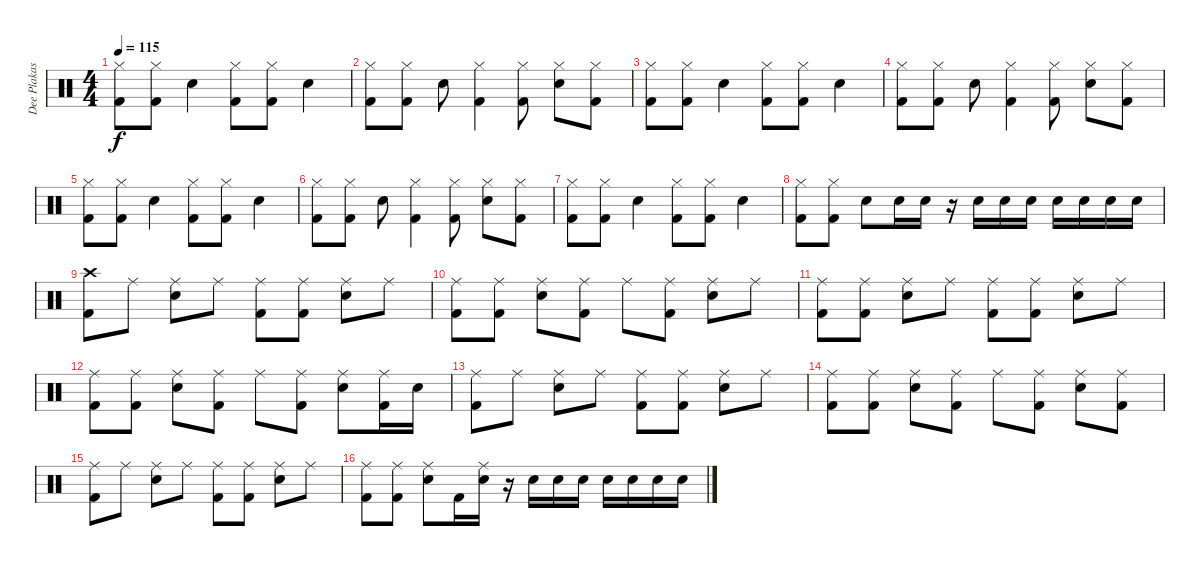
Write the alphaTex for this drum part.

\track ("Dee Plakas" "Dee Plakas") {instrument percussion}
\staff {score}
\articulation defaults
\ts (4 4)
\tempo 115
\clef neutral
\ks c
("Hi-Hat (closed)" "Kick (hit) 2").8{dy f} ("Hi-Hat (closed)" "Kick (hit) 2").8 "Snare (hit) 2".4 ("Hi-Hat (closed)" "Kick (hit) 2").8 ("Hi-Hat (closed)" "Kick (hit) 2").8 "Snare (hit) 2".4 |
("Hi-Hat (closed)" "Kick (hit) 2").8 ("Hi-Hat (closed)" "Kick (hit) 2").8 "Snare (hit) 2".8 ("Hi-Hat (closed)" "Kick (hit) 2").4 ("Hi-Hat (closed)" "Kick (hit) 2").8 ("Hi-Hat (closed)" "Snare (hit) 2").8 ("Hi-Hat (closed)" "Kick (hit) 2").8 |
("Hi-Hat (closed)" "Kick (hit) 2").8 ("Hi-Hat (closed)" "Kick (hit) 2").8 "Snare (hit) 2".4 ("Hi-Hat (closed)" "Kick (hit) 2").8 ("Hi-Hat (closed)" "Kick (hit) 2").8 "Snare (hit) 2".4 |
("Hi-Hat (closed)" "Kick (hit) 2").8 ("Hi-Hat (closed)" "Kick (hit) 2").8 "Snare (hit) 2".8 ("Hi-Hat (closed)" "Kick (hit) 2").4 ("Hi-Hat (closed)" "Kick (hit) 2").8 ("Hi-Hat (closed)" "Snare (hit) 2").8 ("Hi-Hat (closed)" "Kick (hit) 2").8 |
("Hi-Hat (closed)" "Kick (hit) 2").8 ("Hi-Hat (closed)" "Kick (hit) 2").8 "Snare (hit) 2".4 ("Hi-Hat (closed)" "Kick (hit) 2").8 ("Hi-Hat (closed)" "Kick (hit) 2").8 "Snare (hit) 2".4 |
("Hi-Hat (closed)" "Kick (hit) 2").8 ("Hi-Hat (closed)" "Kick (hit) 2").8 "Snare (hit) 2".8 ("Hi-Hat (closed)" "Kick (hit) 2").4 ("Hi-Hat (closed)" "Kick (hit) 2").8 ("Hi-Hat (closed)" "Snare (hit) 2").8 ("Hi-Hat (closed)" "Kick (hit) 2").8 |
("Hi-Hat (closed)" "Kick (hit) 2").8 ("Hi-Hat (closed)" "Kick (hit) 2").8 "Snare (hit) 2".4 ("Hi-Hat (closed)" "Kick (hit) 2").8 ("Hi-Hat (closed)" "Kick (hit) 2").8 "Snare (hit) 2".4 |
("Hi-Hat (closed)" "Kick (hit) 2").8 ("Hi-Hat (closed)" "Kick (hit) 2").8 "Snare (hit) 2".8 "Snare (hit) 2".16 "Snare (hit) 2".16 r.16 "Snare (hit) 2".16 "Snare (hit) 2".16 "Snare (hit) 2".16 "Snare (hit) 2".16 "Snare (hit) 2".16 "Snare (hit) 2".16 "Snare (hit) 2".16 |
("Crash high (hit)" "Kick (hit) 2").8 "Ride (middle)".8 ("Ride (middle)" "Snare (hit) 2").8 "Ride (middle)".8 ("Ride (middle)" "Kick (hit) 2").8 ("Ride (middle)" "Kick (hit) 2").8 ("Ride (middle)" "Snare (hit) 2").8 "Ride (middle)".8 |
("Ride (middle)" "Kick (hit) 2").8 ("Ride (middle)" "Kick (hit) 2").8 ("Ride (middle)" "Snare (hit) 2").8 ("Ride (middle)" "Kick (hit) 2").8 "Ride (middle)".8 ("Ride (middle)" "Kick (hit) 2").8 ("Ride (middle)" "Snare (hit) 2").8 "Ride (middle)".8 |
("Ride (middle)" "Kick (hit) 2").8 ("Ride (middle)" "Kick (hit) 2").8 ("Ride (middle)" "Snare (hit) 2").8 "Ride (middle)".8 ("Ride (middle)" "Kick (hit) 2").8 ("Ride (middle)" "Kick (hit) 2").8 ("Ride (middle)" "Snare (hit) 2").8 "Ride (middle)".8 |
("Ride (middle)" "Kick (hit) 2").8 ("Ride (middle)" "Kick (hit) 2").8 ("Ride (middle)" "Snare (hit) 2").8 ("Ride (middle)" "Kick (hit) 2").8 "Ride (middle)".8 ("Ride (middle)" "Kick (hit) 2").8 ("Ride (middle)" "Snare (hit) 2").8 ("Ride (middle)" "Kick (hit) 2").16 "Snare (hit) 2".16 |
("Ride (middle)" "Kick (hit) 2").8 "Ride (middle)".8 ("Ride (middle)" "Snare (hit) 2").8 "Ride (middle)".8 ("Ride (middle)" "Kick (hit) 2").8 ("Ride (middle)" "Kick (hit) 2").8 ("Ride (middle)" "Snare (hit) 2").8 "Ride (middle)".8 |
("Ride (middle)" "Kick (hit) 2").8 ("Ride (middle)" "Kick (hit) 2").8 ("Ride (middle)" "Snare (hit) 2").8 ("Ride (middle)" "Kick (hit) 2").8 "Ride (middle)".8 ("Ride (middle)" "Kick (hit) 2").8 ("Ride (middle)" "Snare (hit) 2").8 ("Ride (middle)" "Kick (hit) 2").8 |
("Ride (middle)" "Kick (hit) 2").8 "Ride (middle)".8 ("Ride (middle)" "Snare (hit) 2").8 "Ride (middle)".8 ("Ride (middle)" "Kick (hit) 2").8 ("Ride (middle)" "Kick (hit) 2").8 ("Ride (middle)" "Snare (hit) 2").8 "Ride (middle)".8 |
("Ride (middle)" "Kick (hit) 2").8 ("Ride (middle)" "Kick (hit) 2").8 ("Ride (middle)" "Snare (hit) 2").8 "Kick (hit) 2".16 ("Ride (middle)" "Snare (hit) 2").16 r.16 "Snare (hit) 2".16 "Snare (hit) 2".16 "Snare (hit) 2".16 "Snare (hit) 2".16 "Snare (hit) 2".16 "Snare (hit) 2".16 "Snare (hit) 2".16
